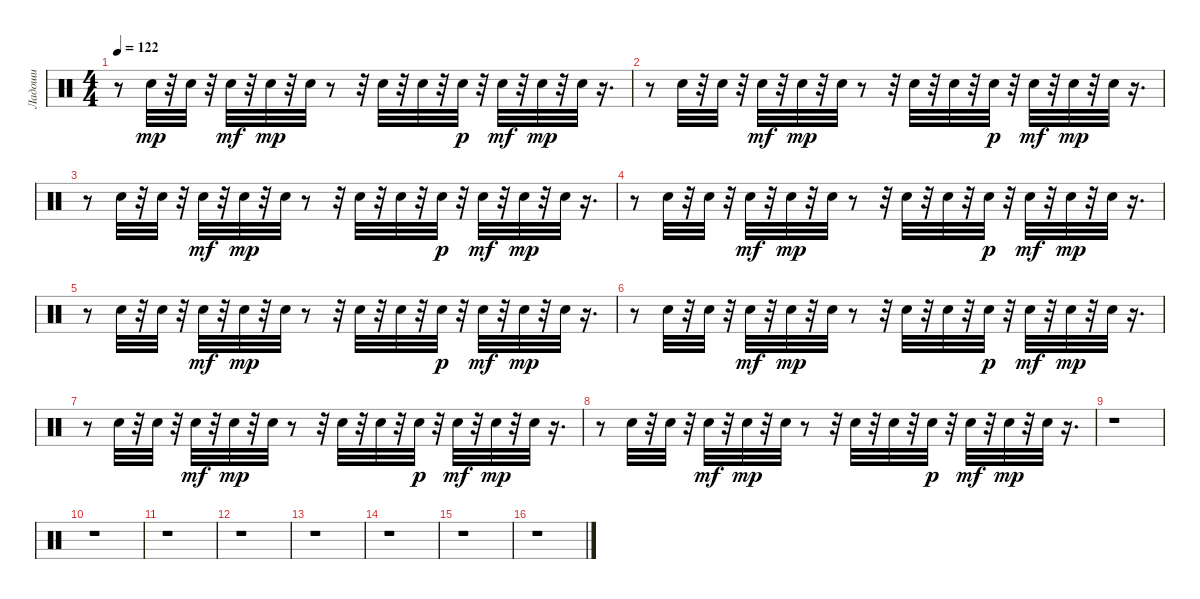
\track ("Ладоши" "Ладоши") {instrument percussion}
\staff {score}
\articulation defaults
\ts (4 4)
\tempo 122
\clef neutral
\ks c
r.8{dy mp} "Hand Clap (hit)".32 r.32 "Hand Clap (hit)".32 r.32 "Hand Clap (hit)".32{dy mf} r.32 "Hand Clap (hit)".32{dy mp} r.32 "Hand Clap (hit)".32 r.8 r.32 "Hand Clap (hit)".32 r.32 "Hand Clap (hit)".32 r.32 "Hand Clap (hit)".32{dy p} r.32 "Hand Clap (hit)".32{dy mf} r.32 "Hand Clap (hit)".32{dy mp} r.32 "Hand Clap (hit)".32 r.16{d} |
r.8 "Hand Clap (hit)".32 r.32 "Hand Clap (hit)".32 r.32 "Hand Clap (hit)".32{dy mf} r.32 "Hand Clap (hit)".32{dy mp} r.32 "Hand Clap (hit)".32 r.8 r.32 "Hand Clap (hit)".32 r.32 "Hand Clap (hit)".32 r.32 "Hand Clap (hit)".32{dy p} r.32 "Hand Clap (hit)".32{dy mf} r.32 "Hand Clap (hit)".32{dy mp} r.32 "Hand Clap (hit)".32 r.16{d} |
r.8 "Hand Clap (hit)".32 r.32 "Hand Clap (hit)".32 r.32 "Hand Clap (hit)".32{dy mf} r.32 "Hand Clap (hit)".32{dy mp} r.32 "Hand Clap (hit)".32 r.8 r.32 "Hand Clap (hit)".32 r.32 "Hand Clap (hit)".32 r.32 "Hand Clap (hit)".32{dy p} r.32 "Hand Clap (hit)".32{dy mf} r.32 "Hand Clap (hit)".32{dy mp} r.32 "Hand Clap (hit)".32 r.16{d} |
r.8 "Hand Clap (hit)".32 r.32 "Hand Clap (hit)".32 r.32 "Hand Clap (hit)".32{dy mf} r.32 "Hand Clap (hit)".32{dy mp} r.32 "Hand Clap (hit)".32 r.8 r.32 "Hand Clap (hit)".32 r.32 "Hand Clap (hit)".32 r.32 "Hand Clap (hit)".32{dy p} r.32 "Hand Clap (hit)".32{dy mf} r.32 "Hand Clap (hit)".32{dy mp} r.32 "Hand Clap (hit)".32 r.16{d} |
r.8 "Hand Clap (hit)".32 r.32 "Hand Clap (hit)".32 r.32 "Hand Clap (hit)".32{dy mf} r.32 "Hand Clap (hit)".32{dy mp} r.32 "Hand Clap (hit)".32 r.8 r.32 "Hand Clap (hit)".32 r.32 "Hand Clap (hit)".32 r.32 "Hand Clap (hit)".32{dy p} r.32 "Hand Clap (hit)".32{dy mf} r.32 "Hand Clap (hit)".32{dy mp} r.32 "Hand Clap (hit)".32 r.16{d} |
r.8 "Hand Clap (hit)".32 r.32 "Hand Clap (hit)".32 r.32 "Hand Clap (hit)".32{dy mf} r.32 "Hand Clap (hit)".32{dy mp} r.32 "Hand Clap (hit)".32 r.8 r.32 "Hand Clap (hit)".32 r.32 "Hand Clap (hit)".32 r.32 "Hand Clap (hit)".32{dy p} r.32 "Hand Clap (hit)".32{dy mf} r.32 "Hand Clap (hit)".32{dy mp} r.32 "Hand Clap (hit)".32 r.16{d} |
r.8 "Hand Clap (hit)".32 r.32 "Hand Clap (hit)".32 r.32 "Hand Clap (hit)".32{dy mf} r.32 "Hand Clap (hit)".32{dy mp} r.32 "Hand Clap (hit)".32 r.8 r.32 "Hand Clap (hit)".32 r.32 "Hand Clap (hit)".32 r.32 "Hand Clap (hit)".32{dy p} r.32 "Hand Clap (hit)".32{dy mf} r.32 "Hand Clap (hit)".32{dy mp} r.32 "Hand Clap (hit)".32 r.16{d} |
r.8 "Hand Clap (hit)".32 r.32 "Hand Clap (hit)".32 r.32 "Hand Clap (hit)".32{dy mf} r.32 "Hand Clap (hit)".32{dy mp} r.32 "Hand Clap (hit)".32 r.8 r.32 "Hand Clap (hit)".32 r.32 "Hand Clap (hit)".32 r.32 "Hand Clap (hit)".32{dy p} r.32 "Hand Clap (hit)".32{dy mf} r.32 "Hand Clap (hit)".32{dy mp} r.32 "Hand Clap (hit)".32 r.16{d} |
r.1 |
r.1 |
r.1 |
r.1 |
r.1 |
r.1 |
r.1 |
r.1
